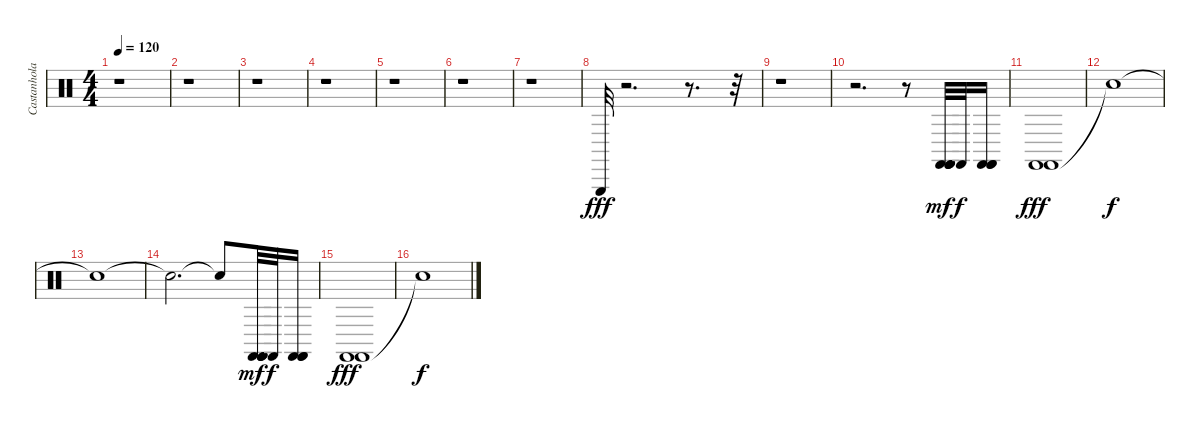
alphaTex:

\track ("Castanholas etc. ïåğêóññèÿ" "Castanhola") {instrument percussion}
\staff {score}
\articulation defaults
\ts (4 4)
\tempo 120
\clef neutral
\ks c
r.1{dy f} |
r.1 |
r.1 |
r.1 |
r.1 |
r.1 |
r.1 |
"Triangle (hit)".32{dy fff} r.2{d} r.8{d} r.32 |
r.1 |
r.2{d} r.8 ("Castanets (hit)" "Castanets (hit)" "Castanets (hit)" "Castanets (hit)").32{dy mf} "Castanets (hit)".32{dy f} ("Castanets (hit)" "Castanets (hit)" "Castanets (hit)").16 |
("Castanets (hit)" "Castanets (hit)").1{dy fff} |
"Snare (hit)"{t}.1{dy f} |
"Snare (hit)"{t}.1 |
"Snare (hit)"{t}.2{d} "Snare (hit)"{t}.8 ("Castanets (hit)" "Castanets (hit)" "Castanets (hit)" "Castanets (hit)").32{dy mf} "Castanets (hit)".32{dy f} ("Castanets (hit)" "Castanets (hit)" "Castanets (hit)").16 |
("Castanets (hit)" "Castanets (hit)").1{dy fff} |
"Snare (hit)"{t}.1{dy f}
